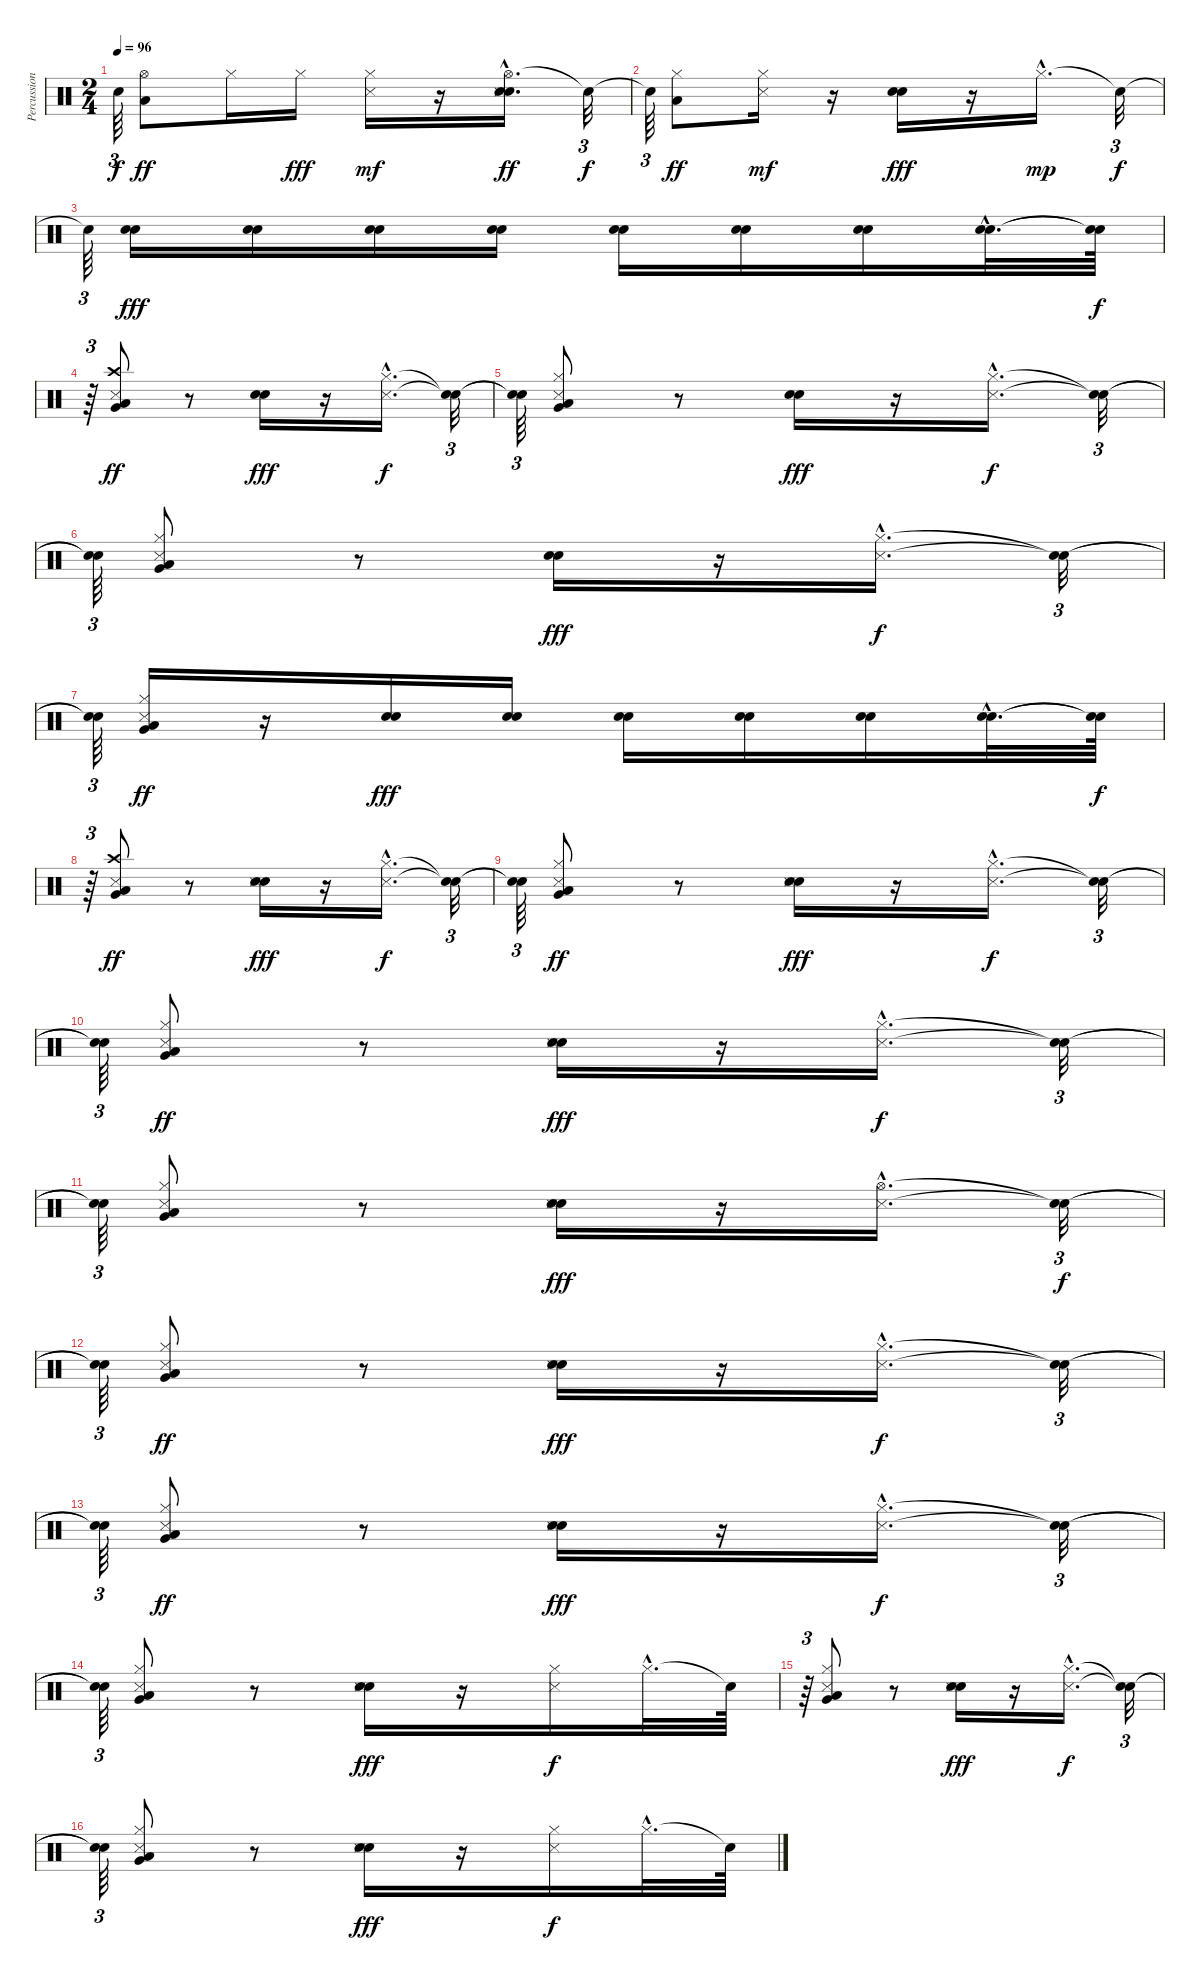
\track ("Percussion" "Percussion") {instrument percussion}
\staff {score}
\articulation defaults
\ts (2 4)
\tempo 96
\clef neutral
\ks c "Snare (hit)"{t}.64{tu (3 2) dy f}
("Hi-Hat (open)" "Low Floor Tom (hit)").8{dy ff} "Hi-Hat (closed)".16 "Hi-Hat (closed)".16{dy fff} ("Hi-Hat (closed)" "Snare (side stick) 3").16{dy mf} r.16 ("Hi-Hat (open)"{hac} "Snare (hit) 2"{hac} "Electric Snare (hit)"{hac} "Snare (side stick) 3"{hac}).16{d dy ff} "Snare (hit)"{t}.32{tu (3 2) dy f} |
"Snare (hit)"{t}.64{tu (3 2)} ("Hi-Hat (closed)" "Low Floor Tom (hit)").8{dy ff} ("Hi-Hat (closed)" "Snare (side stick) 3").16{dy mf} r.16 ("Electric Snare (hit)" "Snare (hit) 2").16{dy fff} r.16 "Hi-Hat (closed)"{hac}.16{d dy mp} "Snare (hit)"{t}.32{tu (3 2) dy f} |
"Snare (hit)"{t}.64{tu (3 2)} ("Electric Snare (hit)" "Snare (hit) 2").16{dy fff} ("Electric Snare (hit)" "Snare (hit) 2").16 ("Electric Snare (hit)" "Snare (hit) 2").16 ("Electric Snare (hit)" "Snare (hit) 2").16 ("Electric Snare (hit)" "Snare (hit) 2").16 ("Electric Snare (hit)" "Snare (hit) 2").16 ("Electric Snare (hit)" "Snare (hit) 2").16 ("Electric Snare (hit)"{hac} "Snare (hit) 2"{hac}).32{d} ("Snare (hit)"{t} "Snare (hit)"{t}).64{dy f} |
r.64{tu (3 2)} ("Crash high (hit)" "Snare (side stick) 3" "Very Low Tom (hit)" "Low Floor Tom (hit)").8{dy ff} r.8 ("Electric Snare (hit)" "Snare (hit) 2").16{dy fff} r.16 ("Hi-Hat (closed)"{hac} "Snare (side stick) 3"{hac}).16{d dy f} ("Snare (hit)"{t} "Snare (hit)"{t}).32{tu (3 2)} |
("Snare (hit)"{t} "Snare (hit)"{t}).64{tu (3 2)} ("Hi-Hat (closed)" "Snare (side stick) 3" "Very Low Tom (hit)" "Low Floor Tom (hit)").8 r.8 ("Electric Snare (hit)" "Snare (hit) 2").16{dy fff} r.16 ("Hi-Hat (closed)"{hac} "Snare (side stick) 3"{hac}).16{d dy f} ("Snare (hit)"{t} "Snare (hit)"{t}).32{tu (3 2)} |
("Snare (hit)"{t} "Snare (hit)"{t}).64{tu (3 2)} ("Hi-Hat (closed)" "Snare (side stick) 3" "Very Low Tom (hit)" "Low Floor Tom (hit)").8 r.8 ("Electric Snare (hit)" "Snare (hit) 2").16{dy fff} r.16 ("Hi-Hat (closed)"{hac} "Snare (side stick) 3"{hac}).16{d dy f} ("Snare (hit)"{t} "Snare (hit)"{t}).32{tu (3 2)} |
("Snare (hit)"{t} "Snare (hit)"{t}).64{tu (3 2)} ("Hi-Hat (closed)" "Snare (side stick) 3" "Very Low Tom (hit)" "Low Floor Tom (hit)").16{dy ff} r.16 ("Electric Snare (hit)" "Snare (hit) 2").16{dy fff} ("Electric Snare (hit)" "Snare (hit) 2").16 ("Electric Snare (hit)" "Snare (hit) 2").16 ("Electric Snare (hit)" "Snare (hit) 2").16 ("Electric Snare (hit)" "Snare (hit) 2").16 ("Electric Snare (hit)"{hac} "Snare (hit) 2"{hac}).32{d} ("Snare (hit)"{t} "Snare (hit)"{t}).64{dy f} |
r.64{tu (3 2)} ("Crash high (hit)" "Snare (side stick) 3" "Very Low Tom (hit)" "Low Floor Tom (hit)").8{dy ff} r.8 ("Electric Snare (hit)" "Snare (side stick) 3" "Snare (hit) 2").16{dy fff} r.16 ("Hi-Hat (closed)"{hac} "Snare (side stick) 3"{hac}).16{d dy f} ("Snare (hit)"{t} "Snare (hit)"{t}).32{tu (3 2)} |
("Snare (hit)"{t} "Snare (hit)"{t}).64{tu (3 2)} ("Hi-Hat (closed)" "Snare (side stick) 3" "Very Low Tom (hit)" "Low Floor Tom (hit)").8{dy ff} r.8 ("Electric Snare (hit)" "Snare (side stick) 3" "Snare (hit) 2").16{dy fff} r.16 ("Hi-Hat (closed)"{hac} "Snare (side stick) 3"{hac}).16{d dy f} ("Snare (hit)"{t} "Snare (hit)"{t}).32{tu (3 2)} |
("Snare (hit)"{t} "Snare (hit)"{t}).64{tu (3 2)} ("Hi-Hat (closed)" "Snare (side stick) 3" "Very Low Tom (hit)" "Low Floor Tom (hit)").8{dy ff} r.8 ("Electric Snare (hit)" "Snare (side stick) 3" "Snare (hit) 2").16{dy fff} r.16 ("Hi-Hat (closed)"{hac} "Snare (side stick) 3"{hac}).16{d dy f} ("Snare (hit)"{t} "Snare (hit)"{t}).32{tu (3 2)} |
("Snare (hit)"{t} "Snare (hit)"{t}).64{tu (3 2)} ("Hi-Hat (closed)" "Snare (side stick) 3" "Very Low Tom (hit)" "Low Floor Tom (hit)").8 r.8 ("Electric Snare (hit)" "Snare (side stick) 3" "Snare (hit) 2").16{dy fff} r.16 ("Hi-Hat (open)"{hac} "Snare (side stick) 3"{hac}).16{d} ("Snare (hit)"{t} "Snare (hit)"{t}).32{tu (3 2) dy f} |
("Snare (hit)"{t} "Snare (hit)"{t}).64{tu (3 2)} ("Hi-Hat (closed)" "Snare (side stick) 3" "Very Low Tom (hit)" "Low Floor Tom (hit)").8{dy ff} r.8 ("Electric Snare (hit)" "Snare (side stick) 3" "Snare (hit) 2").16{dy fff} r.16 ("Hi-Hat (closed)"{hac} "Snare (side stick) 3"{hac}).16{d dy f} ("Snare (hit)"{t} "Snare (hit)"{t}).32{tu (3 2)} |
("Snare (hit)"{t} "Snare (hit)"{t}).64{tu (3 2)} ("Hi-Hat (closed)" "Snare (side stick) 3" "Very Low Tom (hit)" "Low Floor Tom (hit)").8{dy ff} r.8 ("Electric Snare (hit)" "Snare (side stick) 3" "Snare (hit) 2").16{dy fff} r.16 ("Hi-Hat (closed)"{hac} "Snare (side stick) 3"{hac}).16{d dy f} ("Snare (hit)"{t} "Snare (hit)"{t}).32{tu (3 2)} |
("Snare (hit)"{t} "Snare (hit)"{t}).64{tu (3 2)} ("Hi-Hat (closed)" "Snare (side stick) 3" "Very Low Tom (hit)" "Low Floor Tom (hit)").8 r.8 ("Electric Snare (hit)" "Snare (side stick) 3" "Snare (hit) 2").16{dy fff} r.16 ("Hi-Hat (closed)" "Snare (side stick) 3").16{dy f} "Hi-Hat (closed)"{hac}.32{d} "Snare (hit)"{t}.64 |
r.64{tu (3 2)} ("Hi-Hat (closed)" "Snare (side stick) 3" "Very Low Tom (hit)" "Low Floor Tom (hit)").8 r.8 ("Electric Snare (hit)" "Snare (side stick) 3" "Snare (hit) 2").16{dy fff} r.16 ("Hi-Hat (closed)"{hac} "Snare (side stick) 3"{hac}).16{d dy f} ("Snare (hit)"{t} "Snare (hit)"{t}).32{tu (3 2)} |
("Snare (hit)"{t} "Snare (hit)"{t}).64{tu (3 2)} ("Hi-Hat (closed)" "Snare (side stick) 3" "Very Low Tom (hit)" "Low Floor Tom (hit)").8 r.8 ("Electric Snare (hit)" "Snare (side stick) 3" "Snare (hit) 2").16{dy fff} r.16 ("Hi-Hat (closed)" "Snare (side stick) 3").16{dy f} "Hi-Hat (closed)"{hac}.32{d} "Snare (hit)"{t}.64
